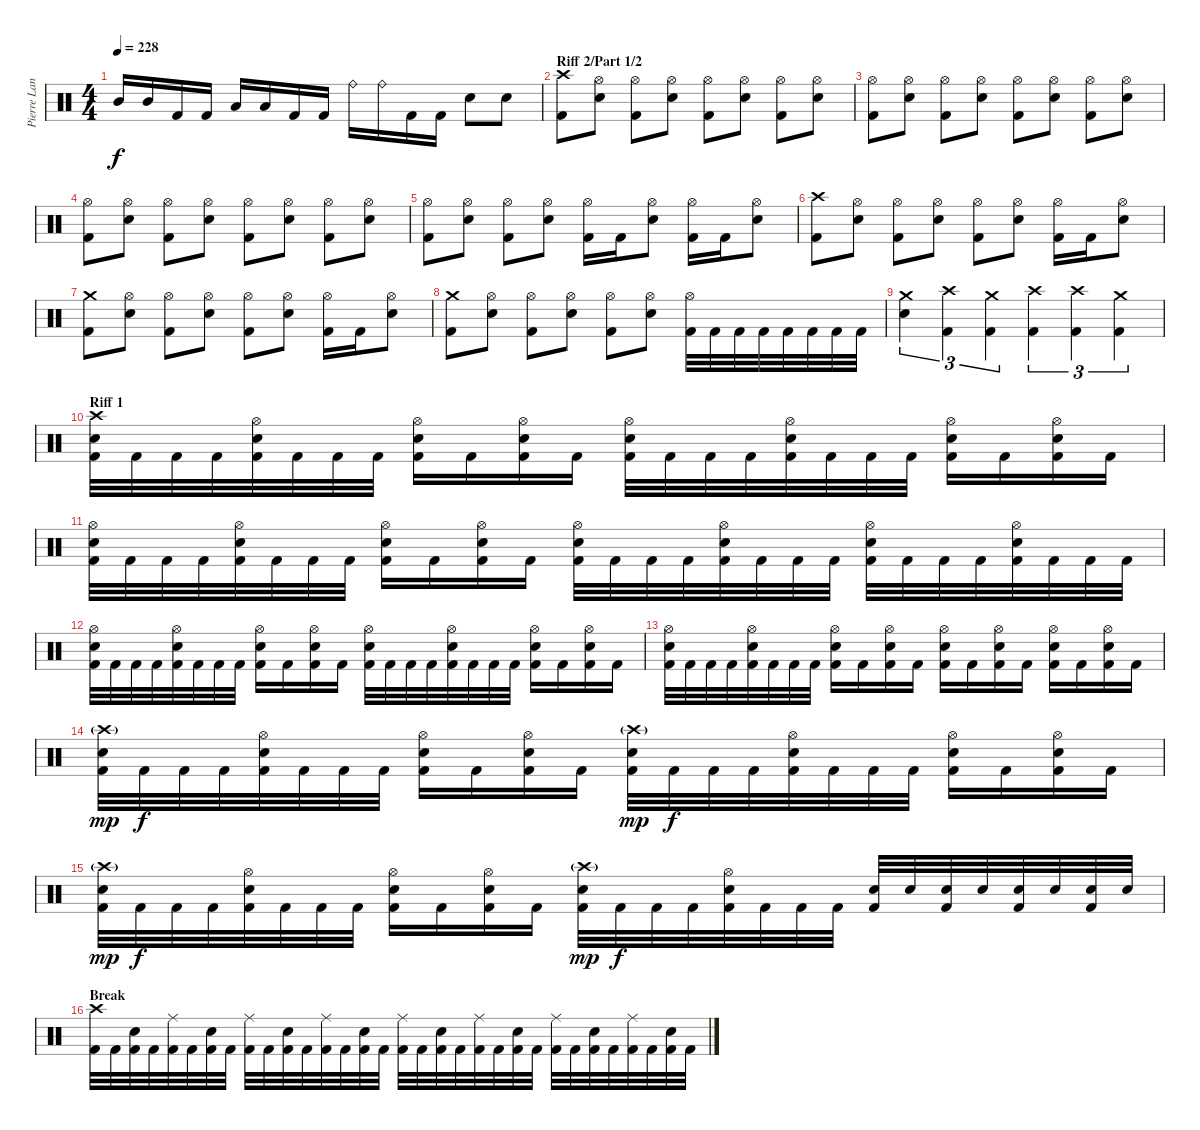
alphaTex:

\track ("Pierre Langlois (Drums)" "Pierre Lan") {instrument percussion}
\staff {score}
\articulation defaults
\ts (4 4)
\tempo 228
\clef neutral
\ks c "Mid Tom (hit)".16{dy f} "Mid Tom (hit)".16 "Kick (hit) 2".16 "Kick (hit) 2".16 "Low Tom (hit)".16 "Low Tom (hit)".16 "Kick (hit) 2".16 "Kick (hit) 2".16 "Ride (bell)".16 "Ride (bell)".16 "Kick (hit) 2".16 "Kick (hit) 2".16 "Snare (hit) 2".8 "Snare (hit) 2".8
|
\section ("" "Riff 2/Part 1/2")
("Crash high (hit)" "Kick (hit) 2").8 ("Hi-Hat (open)" "Snare (hit) 2").8 ("Hi-Hat (open)" "Kick (hit) 2").8 ("Hi-Hat (open)" "Snare (hit) 2").8 ("Hi-Hat (open)" "Kick (hit) 2").8 ("Hi-Hat (open)" "Snare (hit) 2").8 ("Hi-Hat (open)" "Kick (hit) 2").8 ("Hi-Hat (open)" "Snare (hit) 2").8 |
("Hi-Hat (open)" "Kick (hit) 2").8 ("Hi-Hat (open)" "Snare (hit) 2").8 ("Hi-Hat (open)" "Kick (hit) 2").8 ("Hi-Hat (open)" "Snare (hit) 2").8 ("Hi-Hat (open)" "Kick (hit) 2").8 ("Hi-Hat (open)" "Snare (hit) 2").8 ("Hi-Hat (open)" "Kick (hit) 2").8 ("Hi-Hat (open)" "Snare (hit) 2").8 |
("Hi-Hat (open)" "Kick (hit) 2").8 ("Hi-Hat (open)" "Snare (hit) 2").8 ("Hi-Hat (open)" "Kick (hit) 2").8 ("Hi-Hat (open)" "Snare (hit) 2").8 ("Hi-Hat (open)" "Kick (hit) 2").8 ("Hi-Hat (open)" "Snare (hit) 2").8 ("Hi-Hat (open)" "Kick (hit) 2").8 ("Hi-Hat (open)" "Snare (hit) 2").8 |
("Hi-Hat (open)" "Kick (hit) 2").8 ("Hi-Hat (open)" "Snare (hit) 2").8 ("Hi-Hat (open)" "Kick (hit) 2").8 ("Hi-Hat (open)" "Snare (hit) 2").8 ("Hi-Hat (open)" "Kick (hit) 2").16 "Kick (hit) 2".16 ("Hi-Hat (open)" "Snare (hit) 2").8 ("Hi-Hat (open)" "Kick (hit) 2").16 "Kick (hit) 2".16 ("Hi-Hat (open)" "Snare (hit) 2").8 |
("Crash high (hit)" "Kick (hit) 2").8 ("Hi-Hat (open)" "Snare (hit) 2").8 ("Hi-Hat (open)" "Kick (hit) 2").8 ("Hi-Hat (open)" "Snare (hit) 2").8 ("Hi-Hat (open)" "Kick (hit) 2").8 ("Hi-Hat (open)" "Snare (hit) 2").8 ("Hi-Hat (open)" "Kick (hit) 2").16 "Kick (hit) 2".16 ("Hi-Hat (open)" "Snare (hit) 2").8 |
("Crash medium (hit)" "Kick (hit) 2").8 ("Hi-Hat (open)" "Snare (hit) 2").8 ("Hi-Hat (open)" "Kick (hit) 2").8 ("Hi-Hat (open)" "Snare (hit) 2").8 ("Hi-Hat (open)" "Kick (hit) 2").8 ("Hi-Hat (open)" "Snare (hit) 2").8 ("Hi-Hat (open)" "Kick (hit) 2").16 "Kick (hit) 2".16 ("Hi-Hat (open)" "Snare (hit) 2").8 |
("Crash medium (hit)" "Kick (hit) 2").8 ("Hi-Hat (open)" "Snare (hit) 2").8 ("Hi-Hat (open)" "Kick (hit) 2").8 ("Hi-Hat (open)" "Snare (hit) 2").8 ("Hi-Hat (open)" "Kick (hit) 2").8 ("Hi-Hat (open)" "Snare (hit) 2").8 ("Hi-Hat (open)" "Kick (hit) 2").32 "Kick (hit) 2".32 "Kick (hit) 2".32 "Kick (hit) 2".32 "Kick (hit) 2".32 "Kick (hit) 2".32 "Kick (hit) 2".32 "Kick (hit) 2".32 |
("Crash medium (hit)" "Snare (hit) 2").4{tu (3 2)} ("Crash high (hit)" "Kick (hit) 2").4{tu (3 2)} ("Crash medium (hit)" "Kick (hit) 2").4{tu (3 2)} ("Crash high (hit)" "Kick (hit) 2").4{tu (3 2)} ("Crash high (hit)" "Kick (hit) 2").4{tu (3 2)} ("Crash medium (hit)" "Kick (hit) 2").4{tu (3 2)} |
\section ("" "Riff 1")
("Crash high (hit)" "Snare (hit) 2" "Kick (hit) 2").32 "Kick (hit) 2".32 "Kick (hit) 2".32 "Kick (hit) 2".32 ("Hi-Hat (open)" "Snare (hit) 2" "Kick (hit) 2").32 "Kick (hit) 2".32 "Kick (hit) 2".32 "Kick (hit) 2".32 ("Hi-Hat (open)" "Kick (hit) 2" "Snare (hit) 2").16 "Kick (hit) 2".16 ("Hi-Hat (open)" "Snare (hit) 2" "Kick (hit) 2").16 "Kick (hit) 2".16 ("Hi-Hat (open)" "Snare (hit) 2" "Kick (hit) 2").32 "Kick (hit) 2".32 "Kick (hit) 2".32 "Kick (hit) 2".32 ("Hi-Hat (open)" "Snare (hit) 2" "Kick (hit) 2").32 "Kick (hit) 2".32 "Kick (hit) 2".32 "Kick (hit) 2".32 ("Hi-Hat (open)" "Snare (hit) 2" "Kick (hit) 2").16 "Kick (hit) 2".16 ("Hi-Hat (open)" "Snare (hit) 2" "Kick (hit) 2").16 "Kick (hit) 2".16 |
("Hi-Hat (open)" "Snare (hit) 2" "Kick (hit) 2").32 "Kick (hit) 2".32 "Kick (hit) 2".32 "Kick (hit) 2".32 ("Hi-Hat (open)" "Snare (hit) 2" "Kick (hit) 2").32 "Kick (hit) 2".32 "Kick (hit) 2".32 "Kick (hit) 2".32 ("Hi-Hat (open)" "Kick (hit) 2" "Snare (hit) 2").16 "Kick (hit) 2".16 ("Hi-Hat (open)" "Snare (hit) 2" "Kick (hit) 2").16 "Kick (hit) 2".16 ("Hi-Hat (open)" "Snare (hit) 2" "Kick (hit) 2").32 "Kick (hit) 2".32 "Kick (hit) 2".32 "Kick (hit) 2".32 ("Hi-Hat (open)" "Snare (hit) 2" "Kick (hit) 2").32 "Kick (hit) 2".32 "Kick (hit) 2".32 "Kick (hit) 2".32 ("Hi-Hat (open)" "Snare (hit) 2" "Kick (hit) 2").32 "Kick (hit) 2".32 "Kick (hit) 2".32 "Kick (hit) 2".32 ("Hi-Hat (open)" "Snare (hit) 2" "Kick (hit) 2").32 "Kick (hit) 2".32 "Kick (hit) 2".32 "Kick (hit) 2".32 |
("Hi-Hat (open)" "Snare (hit) 2" "Kick (hit) 2").32 "Kick (hit) 2".32 "Kick (hit) 2".32 "Kick (hit) 2".32 ("Hi-Hat (open)" "Snare (hit) 2" "Kick (hit) 2").32 "Kick (hit) 2".32 "Kick (hit) 2".32 "Kick (hit) 2".32 ("Hi-Hat (open)" "Kick (hit) 2" "Snare (hit) 2").16 "Kick (hit) 2".16 ("Hi-Hat (open)" "Snare (hit) 2" "Kick (hit) 2").16 "Kick (hit) 2".16 ("Hi-Hat (open)" "Snare (hit) 2" "Kick (hit) 2").32 "Kick (hit) 2".32 "Kick (hit) 2".32 "Kick (hit) 2".32 ("Hi-Hat (open)" "Snare (hit) 2" "Kick (hit) 2").32 "Kick (hit) 2".32 "Kick (hit) 2".32 "Kick (hit) 2".32 ("Hi-Hat (open)" "Snare (hit) 2" "Kick (hit) 2").16 "Kick (hit) 2".16 ("Hi-Hat (open)" "Snare (hit) 2" "Kick (hit) 2").16 "Kick (hit) 2".16 |
("Hi-Hat (open)" "Snare (hit) 2" "Kick (hit) 2").32 "Kick (hit) 2".32 "Kick (hit) 2".32 "Kick (hit) 2".32 ("Hi-Hat (open)" "Snare (hit) 2" "Kick (hit) 2").32 "Kick (hit) 2".32 "Kick (hit) 2".32 "Kick (hit) 2".32 ("Hi-Hat (open)" "Kick (hit) 2" "Snare (hit) 2").16 "Kick (hit) 2".16 ("Hi-Hat (open)" "Snare (hit) 2" "Kick (hit) 2").16 "Kick (hit) 2".16 ("Hi-Hat (open)" "Snare (hit) 2" "Kick (hit) 2").16 "Kick (hit) 2".16 ("Hi-Hat (open)" "Snare (hit) 2" "Kick (hit) 2").16 "Kick (hit) 2".16 ("Hi-Hat (open)" "Snare (hit) 2" "Kick (hit) 2").16 "Kick (hit) 2".16 ("Hi-Hat (open)" "Snare (hit) 2" "Kick (hit) 2").16 "Kick (hit) 2".16 |
("Crash high (hit)"{g} "Snare (hit) 2" "Kick (hit) 2").32{dy mp} "Kick (hit) 2".32{dy f} "Kick (hit) 2".32 "Kick (hit) 2".32 ("Hi-Hat (open)" "Snare (hit) 2" "Kick (hit) 2").32 "Kick (hit) 2".32 "Kick (hit) 2".32 "Kick (hit) 2".32 ("Hi-Hat (open)" "Kick (hit) 2" "Snare (hit) 2").16 "Kick (hit) 2".16 ("Hi-Hat (open)" "Snare (hit) 2" "Kick (hit) 2").16 "Kick (hit) 2".16 ("Crash high (hit)"{g} "Snare (hit) 2" "Kick (hit) 2").32{dy mp} "Kick (hit) 2".32{dy f} "Kick (hit) 2".32 "Kick (hit) 2".32 ("Hi-Hat (open)" "Snare (hit) 2" "Kick (hit) 2").32 "Kick (hit) 2".32 "Kick (hit) 2".32 "Kick (hit) 2".32 ("Hi-Hat (open)" "Snare (hit) 2" "Kick (hit) 2").16 "Kick (hit) 2".16 ("Hi-Hat (open)" "Snare (hit) 2" "Kick (hit) 2").16 "Kick (hit) 2".16 |
("Crash high (hit)"{g} "Snare (hit) 2" "Kick (hit) 2").32{dy mp} "Kick (hit) 2".32{dy f} "Kick (hit) 2".32 "Kick (hit) 2".32 ("Hi-Hat (open)" "Snare (hit) 2" "Kick (hit) 2").32 "Kick (hit) 2".32 "Kick (hit) 2".32 "Kick (hit) 2".32 ("Hi-Hat (open)" "Kick (hit) 2" "Snare (hit) 2").16 "Kick (hit) 2".16 ("Hi-Hat (open)" "Snare (hit) 2" "Kick (hit) 2").16 "Kick (hit) 2".16 ("Crash high (hit)"{g} "Snare (hit) 2" "Kick (hit) 2").32{dy mp} "Kick (hit) 2".32{dy f} "Kick (hit) 2".32 "Kick (hit) 2".32 ("Hi-Hat (open)" "Snare (hit) 2" "Kick (hit) 2").32 "Kick (hit) 2".32 "Kick (hit) 2".32 "Kick (hit) 2".32 ("Snare (hit) 2" "Kick (hit) 2").32 "Snare (hit) 2".32 ("Snare (hit) 2" "Kick (hit) 2").32 "Snare (hit) 2".32 ("Snare (hit) 2" "Kick (hit) 2").32 "Snare (hit) 2".32 ("Snare (hit) 2" "Kick (hit) 2").32 "Snare (hit) 2".32 |
\section ("" "Break")
("Crash high (hit)" "Kick (hit) 2").32 "Kick (hit) 2".32 ("Snare (hit) 2" "Kick (hit) 2").32 "Kick (hit) 2".32 ("Ride (middle)" "Kick (hit) 2").32 "Kick (hit) 2".32 ("Snare (hit) 2" "Kick (hit) 2").32 "Kick (hit) 2".32 ("Ride (middle)" "Kick (hit) 2").32 "Kick (hit) 2".32 ("Snare (hit) 2" "Kick (hit) 2").32 "Kick (hit) 2".32 ("Ride (middle)" "Kick (hit) 2").32 "Kick (hit) 2".32 ("Snare (hit) 2" "Kick (hit) 2").32 "Kick (hit) 2".32 ("Ride (middle)" "Kick (hit) 2").32 "Kick (hit) 2".32 ("Snare (hit) 2" "Kick (hit) 2").32 "Kick (hit) 2".32 ("Ride (middle)" "Kick (hit) 2").32 "Kick (hit) 2".32 ("Snare (hit) 2" "Kick (hit) 2").32 "Kick (hit) 2".32 ("Ride (middle)" "Kick (hit) 2").32 "Kick (hit) 2".32 ("Snare (hit) 2" "Kick (hit) 2").32 "Kick (hit) 2".32 ("Ride (middle)" "Kick (hit) 2").32 "Kick (hit) 2".32 ("Snare (hit) 2" "Kick (hit) 2").32 "Kick (hit) 2".32
